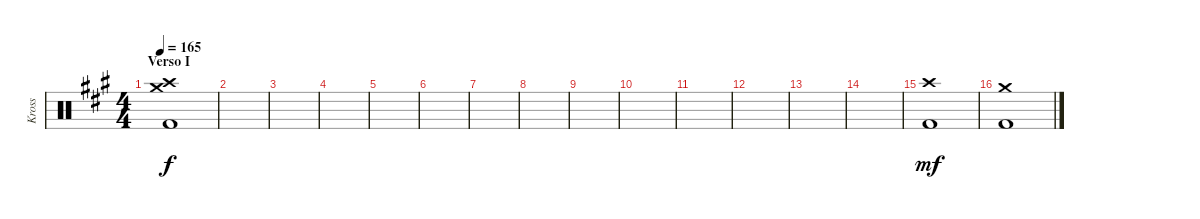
\track ("Kross" "Kross") {instrument percussion}
\staff {score}
\articulation defaults
\ts (4 4)
\section ("" "Verso I")
\tempo 165
\clef neutral
\ks a
("Crash medium (hit)" "Crash high (hit)" "Kick (hit) 2").1{dy f} |
|
|
|
|
|
|
|
|
|
|
|
|
|
("Crash high (hit)" "Kick (hit) 2").1{dy mf} |
("Crash medium (hit)" "Kick (hit) 2").1
